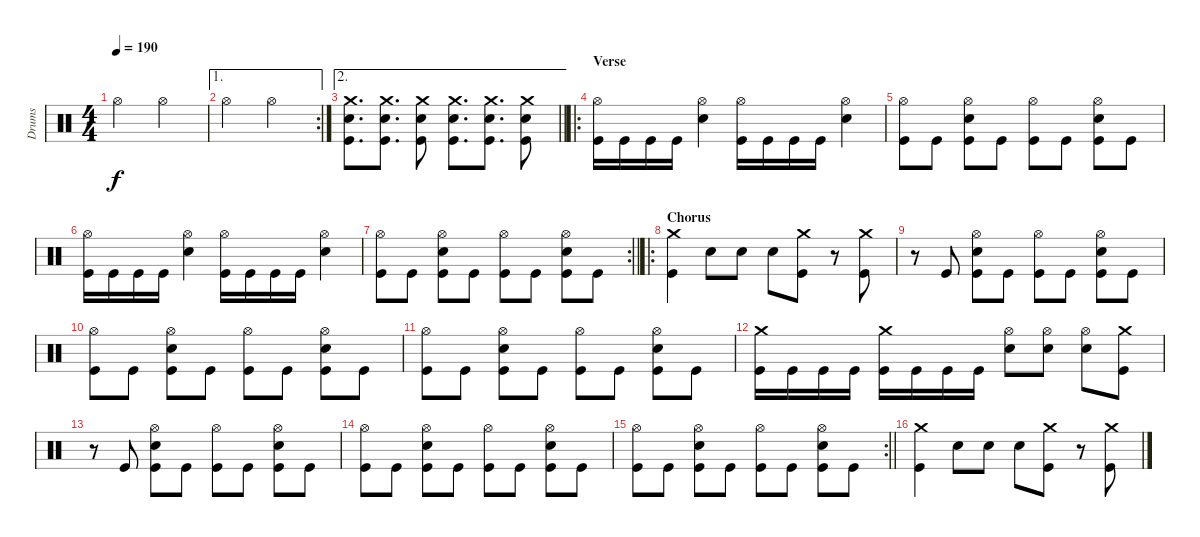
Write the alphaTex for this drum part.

\track ("Drums" "Drums") {instrument percussion}
\staff {score}
\articulation defaults
\ts (4 4)
\tempo 190
\clef neutral
\ks c "Hi-Hat (open)".2{dy f} "Hi-Hat (open)".2
|
\ae 1
\rc 2 "Hi-Hat (open)".2 "Hi-Hat (open)".2
|
\ae 2
\barLineRight lightlight
("Crash medium (hit)" "Snare (hit) 2" "Kick (hit)").8{d} ("Crash medium (hit)" "Snare (hit) 2" "Kick (hit)").8{d} ("Crash medium (hit)" "Snare (hit) 2" "Kick (hit)").8 ("Crash medium (hit)" "Snare (hit) 2" "Kick (hit)").8{d} ("Crash medium (hit)" "Snare (hit) 2" "Kick (hit)").8{d} ("Crash medium (hit)" "Snare (hit) 2" "Kick (hit)").8 |
\ro
\section ("" "Verse")
("Hi-Hat (open)" "Kick (hit)").16 "Kick (hit)".16 "Kick (hit)".16 "Kick (hit)".16 ("Hi-Hat (open)" "Snare (hit) 2").4 ("Hi-Hat (open)" "Kick (hit)").16 "Kick (hit)".16 "Kick (hit)".16 "Kick (hit)".16 ("Hi-Hat (open)" "Snare (hit) 2").4 |
("Hi-Hat (open)" "Kick (hit)").8 "Kick (hit)".8 ("Hi-Hat (open)" "Snare (hit) 2" "Kick (hit)").8 "Kick (hit)".8 ("Hi-Hat (open)" "Kick (hit)").8 "Kick (hit)".8 ("Hi-Hat (open)" "Snare (hit) 2" "Kick (hit)").8 "Kick (hit)".8 |
("Hi-Hat (open)" "Kick (hit)").16 "Kick (hit)".16 "Kick (hit)".16 "Kick (hit)".16 ("Hi-Hat (open)" "Snare (hit) 2").4 ("Hi-Hat (open)" "Kick (hit)").16 "Kick (hit)".16 "Kick (hit)".16 "Kick (hit)".16 ("Hi-Hat (open)" "Snare (hit) 2").4 |
\rc 2
\barLineRight lightlight
("Hi-Hat (open)" "Kick (hit)").8 "Kick (hit)".8 ("Hi-Hat (open)" "Snare (hit) 2" "Kick (hit)").8 "Kick (hit)".8 ("Hi-Hat (open)" "Kick (hit)").8 "Kick (hit)".8 ("Hi-Hat (open)" "Snare (hit) 2" "Kick (hit)").8 "Kick (hit)".8 |
\ro
\section ("" "Chorus")
("Crash medium (hit)" "Kick (hit)").4 "Snare (hit) 2".8 "Snare (hit) 2".8 "Snare (hit) 2".8 ("Crash medium (hit)" "Kick (hit)").8 r.8 ("Crash medium (hit)" "Kick (hit)").8 |
r.8 "Kick (hit)".8 ("Hi-Hat (open)" "Snare (hit) 2" "Kick (hit)").8 "Kick (hit)".8 ("Hi-Hat (open)" "Kick (hit)").8 "Kick (hit)".8 ("Hi-Hat (open)" "Snare (hit) 2" "Kick (hit)").8 "Kick (hit)".8 |
("Hi-Hat (open)" "Kick (hit)").8 "Kick (hit)".8 ("Hi-Hat (open)" "Snare (hit) 2" "Kick (hit)").8 "Kick (hit)".8 ("Hi-Hat (open)" "Kick (hit)").8 "Kick (hit)".8 ("Hi-Hat (open)" "Snare (hit) 2" "Kick (hit)").8 "Kick (hit)".8 |
("Hi-Hat (open)" "Kick (hit)").8 "Kick (hit)".8 ("Hi-Hat (open)" "Snare (hit) 2" "Kick (hit)").8 "Kick (hit)".8 ("Hi-Hat (open)" "Kick (hit)").8 "Kick (hit)".8 ("Hi-Hat (open)" "Snare (hit) 2" "Kick (hit)").8 "Kick (hit)".8 |
("Crash medium (hit)" "Kick (hit)").16 "Kick (hit)".16 "Kick (hit)".16 "Kick (hit)".16 ("Crash medium (hit)" "Kick (hit)").16 "Kick (hit)".16 "Kick (hit)".16 "Kick (hit)".16 ("Hi-Hat (open)" "Snare (hit) 2").8 ("Hi-Hat (open)" "Snare (hit) 2").8 ("Hi-Hat (open)" "Snare (hit) 2").8 ("Crash medium (hit)" "Kick (hit)").8 |
r.8 "Kick (hit)".8 ("Hi-Hat (open)" "Snare (hit) 2" "Kick (hit)").8 "Kick (hit)".8 ("Hi-Hat (open)" "Kick (hit)").8 "Kick (hit)".8 ("Hi-Hat (open)" "Snare (hit) 2" "Kick (hit)").8 "Kick (hit)".8 |
("Hi-Hat (open)" "Kick (hit)").8 "Kick (hit)".8 ("Hi-Hat (open)" "Snare (hit) 2" "Kick (hit)").8 "Kick (hit)".8 ("Hi-Hat (open)" "Kick (hit)").8 "Kick (hit)".8 ("Hi-Hat (open)" "Snare (hit) 2" "Kick (hit)").8 "Kick (hit)".8 |
\rc 2
\barLineRight lightlight
("Hi-Hat (open)" "Kick (hit)").8 "Kick (hit)".8 ("Hi-Hat (open)" "Snare (hit) 2" "Kick (hit)").8 "Kick (hit)".8 ("Hi-Hat (open)" "Kick (hit)").8 "Kick (hit)".8 ("Hi-Hat (open)" "Snare (hit) 2" "Kick (hit)").8 "Kick (hit)".8 |
("Crash medium (hit)" "Kick (hit)").4 "Snare (hit) 2".8 "Snare (hit) 2".8 "Snare (hit) 2".8 ("Crash medium (hit)" "Kick (hit)").8 r.8 ("Crash medium (hit)" "Kick (hit)").8
